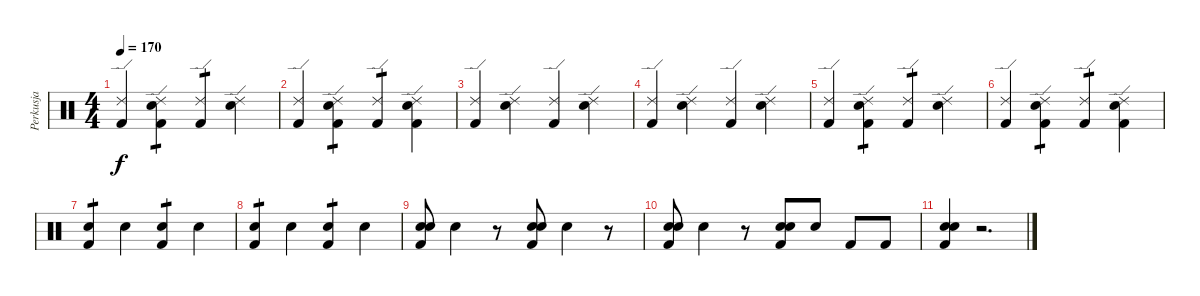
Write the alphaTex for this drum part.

\track ("Perkusja" "Perkusja") {instrument percussion}
\staff {score}
\articulation defaults
\ts (4 4)
\tempo 170
\clef neutral
\ks c
("Ride (edge) 2" "Kick (hit) 2").4{dy f} ("Ride (edge) 2" "Electric Snare (hit)" "Kick (hit) 2").4{tp 1} ("Ride (edge) 2" "Kick (hit) 2").4{tp 1} ("Ride (edge) 2" "Electric Snare (hit)").4 |
("Ride (edge) 2" "Kick (hit) 2").4 ("Ride (edge) 2" "Electric Snare (hit)" "Kick (hit) 2").4{tp 1} ("Ride (edge) 2" "Kick (hit) 2").4{tp 1} ("Ride (edge) 2" "Electric Snare (hit)" "Kick (hit) 2").4 |
("Ride (edge) 2" "Kick (hit) 2").4 ("Ride (edge) 2" "Electric Snare (hit)").4 ("Ride (edge) 2" "Kick (hit) 2").4 ("Ride (edge) 2" "Electric Snare (hit)").4 |
("Ride (edge) 2" "Kick (hit) 2").4 ("Ride (edge) 2" "Electric Snare (hit)").4 ("Ride (edge) 2" "Kick (hit) 2").4 ("Ride (edge) 2" "Electric Snare (hit)").4 |
("Ride (edge) 2" "Kick (hit) 2").4 ("Ride (edge) 2" "Electric Snare (hit)" "Kick (hit) 2").4{tp 1} ("Ride (edge) 2" "Kick (hit) 2").4{tp 1} ("Ride (edge) 2" "Electric Snare (hit)").4 |
("Ride (edge) 2" "Kick (hit) 2").4 ("Ride (edge) 2" "Electric Snare (hit)" "Kick (hit) 2").4{tp 1} ("Ride (edge) 2" "Kick (hit) 2").4{tp 1} ("Ride (edge) 2" "Electric Snare (hit)" "Kick (hit) 2").4 |
("Electric Snare (hit)" "Kick (hit) 2").4{tp 1} "Electric Snare (hit)".4 ("Electric Snare (hit)" "Kick (hit) 2").4{tp 1} "Electric Snare (hit)".4 |
("Electric Snare (hit)" "Kick (hit) 2").4{tp 1} "Electric Snare (hit)".4 ("Electric Snare (hit)" "Kick (hit) 2").4{tp 1} "Electric Snare (hit)".4 |
("Snare (hit) 2" "Electric Snare (hit)" "Kick (hit) 2").8 "Electric Snare (hit)".4 r.8 ("Snare (hit) 2" "Electric Snare (hit)" "Kick (hit) 2").8 "Electric Snare (hit)".4 r.8 |
("Snare (hit) 2" "Electric Snare (hit)" "Kick (hit) 2").8 "Electric Snare (hit)".4 r.8 ("Snare (hit) 2" "Electric Snare (hit)" "Kick (hit) 2").8 "Electric Snare (hit)".8 "Kick (hit) 2".8 "Kick (hit) 2".8 |
("Snare (hit) 2" "Electric Snare (hit)" "Kick (hit) 2").4 r.2{d}
